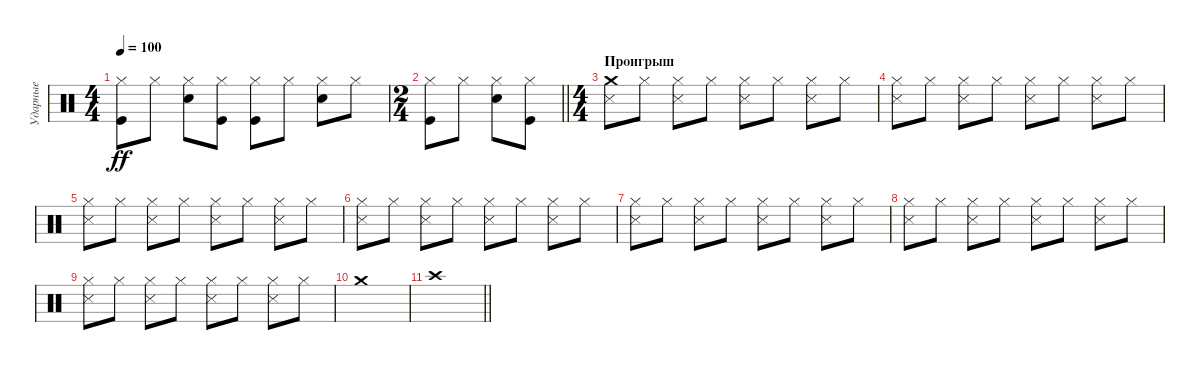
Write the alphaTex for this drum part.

\track ("Ударные" "Ударные") {instrument percussion}
\staff {score}
\articulation defaults
\ts (4 4)
\tempo 100
\clef neutral
\ks c
("Hi-Hat (closed)" "Kick (hit)").8{dy ff} "Hi-Hat (closed)".8 ("Hi-Hat (closed)" "Electric Snare (hit)").8 ("Hi-Hat (closed)" "Kick (hit)").8 ("Hi-Hat (closed)" "Kick (hit)").8 "Hi-Hat (closed)".8 ("Hi-Hat (closed)" "Electric Snare (hit)").8 "Hi-Hat (closed)".8 |
\ts (2 4)
\barLineRight lightlight
("Hi-Hat (closed)" "Kick (hit)").8 "Hi-Hat (closed)".8 ("Hi-Hat (closed)" "Electric Snare (hit)").8 ("Hi-Hat (closed)" "Kick (hit)").8 |
\ts (4 4)
\section ("" "Проигрыш")
("Crash medium (hit)" "Snare (side stick) 3").8 "Hi-Hat (closed)".8 ("Hi-Hat (closed)" "Snare (side stick) 3").8 "Hi-Hat (closed)".8 ("Hi-Hat (closed)" "Snare (side stick) 3").8 "Hi-Hat (closed)".8 ("Hi-Hat (closed)" "Snare (side stick) 3").8 "Hi-Hat (closed)".8 |
("Hi-Hat (closed)" "Snare (side stick) 3").8 "Hi-Hat (closed)".8 ("Hi-Hat (closed)" "Snare (side stick) 3").8 "Hi-Hat (closed)".8 ("Hi-Hat (closed)" "Snare (side stick) 3").8 "Hi-Hat (closed)".8 ("Hi-Hat (closed)" "Snare (side stick) 3").8 "Hi-Hat (closed)".8 |
("Hi-Hat (closed)" "Snare (side stick) 3").8 "Hi-Hat (closed)".8 ("Hi-Hat (closed)" "Snare (side stick) 3").8 "Hi-Hat (closed)".8 ("Hi-Hat (closed)" "Snare (side stick) 3").8 "Hi-Hat (closed)".8 ("Hi-Hat (closed)" "Snare (side stick) 3").8 "Hi-Hat (closed)".8 |
("Hi-Hat (closed)" "Snare (side stick) 3").8 "Hi-Hat (closed)".8 ("Hi-Hat (closed)" "Snare (side stick) 3").8 "Hi-Hat (closed)".8 ("Hi-Hat (closed)" "Snare (side stick) 3").8 "Hi-Hat (closed)".8 ("Hi-Hat (closed)" "Snare (side stick) 3").8 "Hi-Hat (closed)".8 |
("Hi-Hat (closed)" "Snare (side stick) 3").8 "Hi-Hat (closed)".8 ("Hi-Hat (closed)" "Snare (side stick) 3").8 "Hi-Hat (closed)".8 ("Hi-Hat (closed)" "Snare (side stick) 3").8 "Hi-Hat (closed)".8 ("Hi-Hat (closed)" "Snare (side stick) 3").8 "Hi-Hat (closed)".8 |
("Hi-Hat (closed)" "Snare (side stick) 3").8 "Hi-Hat (closed)".8 ("Hi-Hat (closed)" "Snare (side stick) 3").8 "Hi-Hat (closed)".8 ("Hi-Hat (closed)" "Snare (side stick) 3").8 "Hi-Hat (closed)".8 ("Hi-Hat (closed)" "Snare (side stick) 3").8 "Hi-Hat (closed)".8 |
("Hi-Hat (closed)" "Snare (side stick) 3").8 "Hi-Hat (closed)".8 ("Hi-Hat (closed)" "Snare (side stick) 3").8 "Hi-Hat (closed)".8 ("Hi-Hat (closed)" "Snare (side stick) 3").8 "Hi-Hat (closed)".8 ("Hi-Hat (closed)" "Snare (side stick) 3").8 "Hi-Hat (closed)".8 |
"Crash medium (hit)".1 |
\barLineRight lightlight "Crash high (hit)".1
